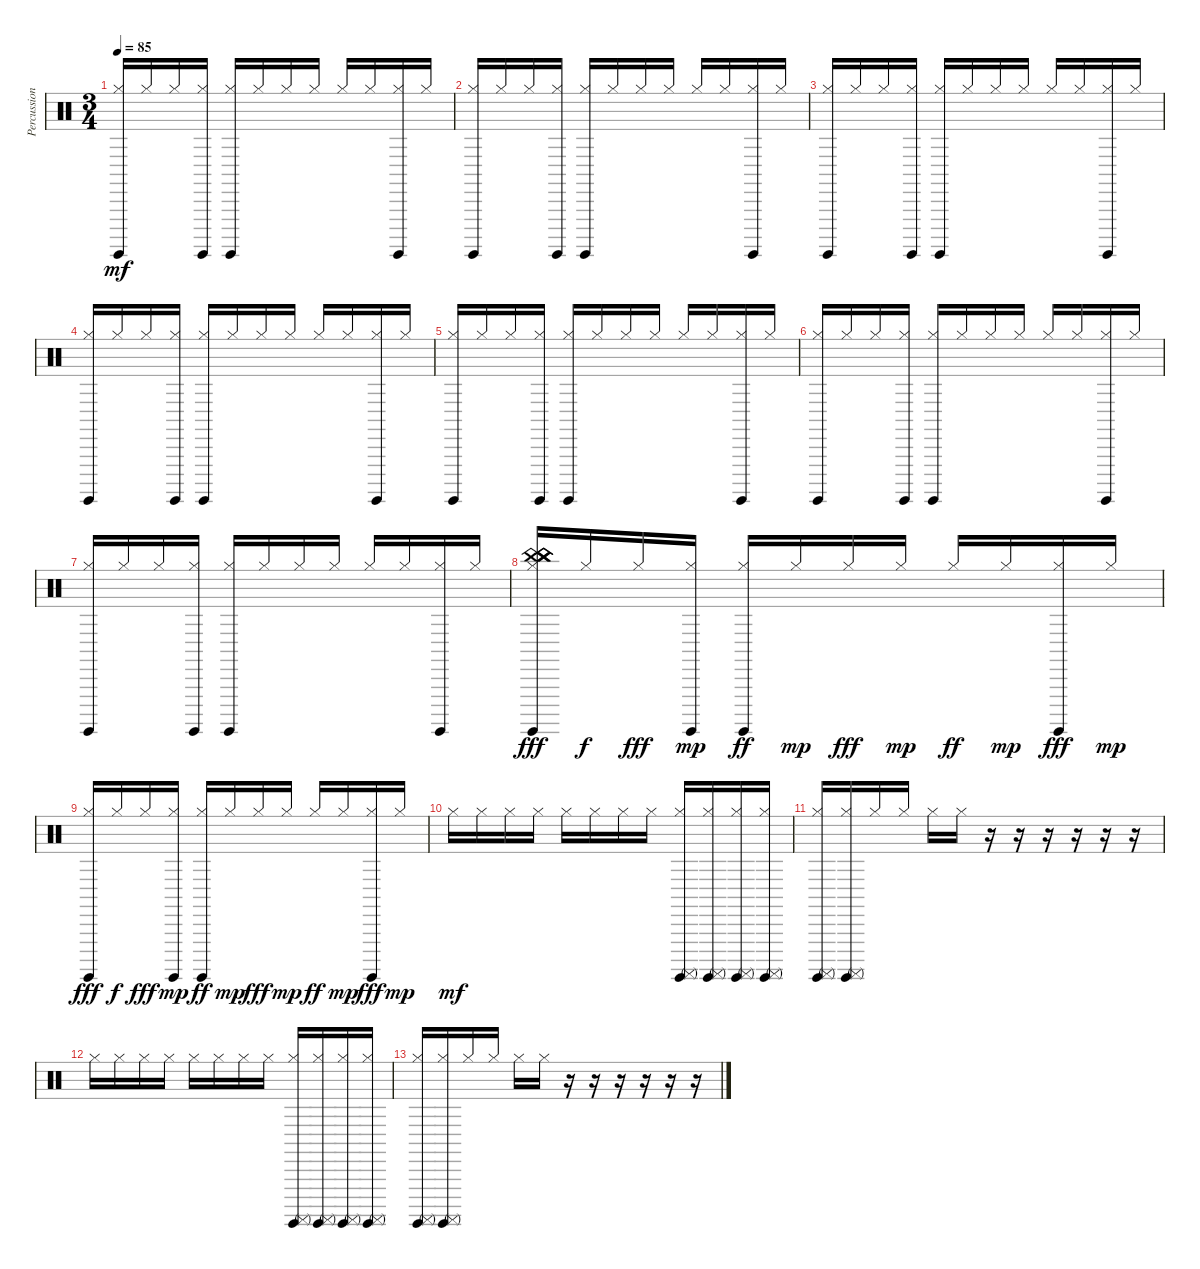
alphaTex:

\track ("Percussion" "Percussion") {instrument percussion}
\staff {score}
\articulation defaults
\ts (3 4)
\tempo 85
\clef neutral
\ks c
("Surdo (hit)" "Hi-Hat (closed)").16{dy mf} "Hi-Hat (closed)".16 "Hi-Hat (closed)".16 ("Surdo (hit)" "Hi-Hat (closed)").16 ("Surdo (hit)" "Hi-Hat (closed)").16 "Hi-Hat (closed)".16 "Hi-Hat (closed)".16 "Hi-Hat (closed)".16 "Hi-Hat (closed)".16 "Hi-Hat (closed)".16 ("Surdo (hit)" "Hi-Hat (closed)").16 "Hi-Hat (closed)".16 |
("Surdo (hit)" "Hi-Hat (closed)").16 "Hi-Hat (closed)".16 "Hi-Hat (closed)".16 ("Surdo (hit)" "Hi-Hat (closed)").16 ("Surdo (hit)" "Hi-Hat (closed)").16 "Hi-Hat (closed)".16 "Hi-Hat (closed)".16 "Hi-Hat (closed)".16 "Hi-Hat (closed)".16 "Hi-Hat (closed)".16 ("Surdo (hit)" "Hi-Hat (closed)").16 "Hi-Hat (closed)".16 |
("Surdo (hit)" "Hi-Hat (closed)").16 "Hi-Hat (closed)".16 "Hi-Hat (closed)".16 ("Surdo (hit)" "Hi-Hat (closed)").16 ("Surdo (hit)" "Hi-Hat (closed)").16 "Hi-Hat (closed)".16 "Hi-Hat (closed)".16 "Hi-Hat (closed)".16 "Hi-Hat (closed)".16 "Hi-Hat (closed)".16 ("Surdo (hit)" "Hi-Hat (closed)").16 "Hi-Hat (closed)".16 |
("Surdo (hit)" "Hi-Hat (closed)").16 "Hi-Hat (closed)".16 "Hi-Hat (closed)".16 ("Surdo (hit)" "Hi-Hat (closed)").16 ("Surdo (hit)" "Hi-Hat (closed)").16 "Hi-Hat (closed)".16 "Hi-Hat (closed)".16 "Hi-Hat (closed)".16 "Hi-Hat (closed)".16 "Hi-Hat (closed)".16 ("Surdo (hit)" "Hi-Hat (closed)").16 "Hi-Hat (closed)".16 |
("Surdo (hit)" "Hi-Hat (closed)").16 "Hi-Hat (closed)".16 "Hi-Hat (closed)".16 ("Surdo (hit)" "Hi-Hat (closed)").16 ("Surdo (hit)" "Hi-Hat (closed)").16 "Hi-Hat (closed)".16 "Hi-Hat (closed)".16 "Hi-Hat (closed)".16 "Hi-Hat (closed)".16 "Hi-Hat (closed)".16 ("Surdo (hit)" "Hi-Hat (closed)").16 "Hi-Hat (closed)".16 |
("Surdo (hit)" "Hi-Hat (closed)").16 "Hi-Hat (closed)".16 "Hi-Hat (closed)".16 ("Surdo (hit)" "Hi-Hat (closed)").16 ("Surdo (hit)" "Hi-Hat (closed)").16 "Hi-Hat (closed)".16 "Hi-Hat (closed)".16 "Hi-Hat (closed)".16 "Hi-Hat (closed)".16 "Hi-Hat (closed)".16 ("Surdo (hit)" "Hi-Hat (closed)").16 "Hi-Hat (closed)".16 |
("Surdo (hit)" "Hi-Hat (closed)").16 "Hi-Hat (closed)".16 "Hi-Hat (closed)".16 ("Surdo (hit)" "Hi-Hat (closed)").16 ("Surdo (hit)" "Hi-Hat (closed)").16 "Hi-Hat (closed)".16 "Hi-Hat (closed)".16 "Hi-Hat (closed)".16 "Hi-Hat (closed)".16 "Hi-Hat (closed)".16 ("Surdo (hit)" "Hi-Hat (closed)").16 "Hi-Hat (closed)".16 |
("China (hit)" "China (hit)" "China (hit)" "China (hit)" "Surdo (hit)" "Hi-Hat (closed)").16{dy fff} "Hi-Hat (closed)".16{dy f} "Hi-Hat (closed)".16{dy fff} ("Surdo (hit)" "Hi-Hat (closed)").16{dy mp} ("Surdo (hit)" "Hi-Hat (closed)").16{dy ff} "Hi-Hat (closed)".16{dy mp} "Hi-Hat (closed)".16{dy fff} "Hi-Hat (closed)".16{dy mp} "Hi-Hat (closed)".16{dy ff} "Hi-Hat (closed)".16{dy mp} ("Surdo (hit)" "Hi-Hat (closed)").16{dy fff} "Hi-Hat (closed)".16{dy mp} |
("Surdo (hit)" "Hi-Hat (closed)").16{dy fff} "Hi-Hat (closed)".16{dy f} "Hi-Hat (closed)".16{dy fff} ("Surdo (hit)" "Hi-Hat (closed)").16{dy mp} ("Surdo (hit)" "Hi-Hat (closed)").16{dy ff} "Hi-Hat (closed)".16{dy mp} "Hi-Hat (closed)".16{dy fff} "Hi-Hat (closed)".16{dy mp} "Hi-Hat (closed)".16{dy ff} "Hi-Hat (closed)".16{dy mp} ("Surdo (hit)" "Hi-Hat (closed)").16{dy fff} "Hi-Hat (closed)".16{dy mp} |
"Hi-Hat (closed)".16{dy mf} "Hi-Hat (closed)".16 "Hi-Hat (closed)".16 "Hi-Hat (closed)".16 "Hi-Hat (closed)".16 "Hi-Hat (closed)".16 "Hi-Hat (closed)".16 "Hi-Hat (closed)".16 ("Surdo (hit)" "Surdo (mute)" "Hi-Hat (closed)").16{volume 8} ("Surdo (hit)" "Surdo (mute)" "Hi-Hat (closed)").16 ("Surdo (hit)" "Surdo (mute)" "Hi-Hat (closed)").16 ("Surdo (hit)" "Surdo (mute)" "Hi-Hat (closed)").16 |
("Surdo (hit)" "Surdo (mute)" "Hi-Hat (closed)").16 ("Surdo (hit)" "Surdo (mute)" "Hi-Hat (closed)").16 "Hi-Hat (closed)".16 "Hi-Hat (closed)".16 "Hi-Hat (closed)".16 "Hi-Hat (closed)".16 r.16 r.16 r.16 r.16 r.16 r.16 |
"Hi-Hat (closed)".16 "Hi-Hat (closed)".16 "Hi-Hat (closed)".16 "Hi-Hat (closed)".16 "Hi-Hat (closed)".16 "Hi-Hat (closed)".16 "Hi-Hat (closed)".16 "Hi-Hat (closed)".16 ("Surdo (hit)" "Surdo (mute)" "Hi-Hat (closed)").16{volume 8} ("Surdo (hit)" "Surdo (mute)" "Hi-Hat (closed)").16 ("Surdo (hit)" "Surdo (mute)" "Hi-Hat (closed)").16 ("Surdo (hit)" "Surdo (mute)" "Hi-Hat (closed)").16 |
("Surdo (hit)" "Surdo (mute)" "Hi-Hat (closed)").16 ("Surdo (hit)" "Surdo (mute)" "Hi-Hat (closed)").16 "Hi-Hat (closed)".16 "Hi-Hat (closed)".16 "Hi-Hat (closed)".16 "Hi-Hat (closed)".16 r.16 r.16 r.16 r.16 r.16 r.16
